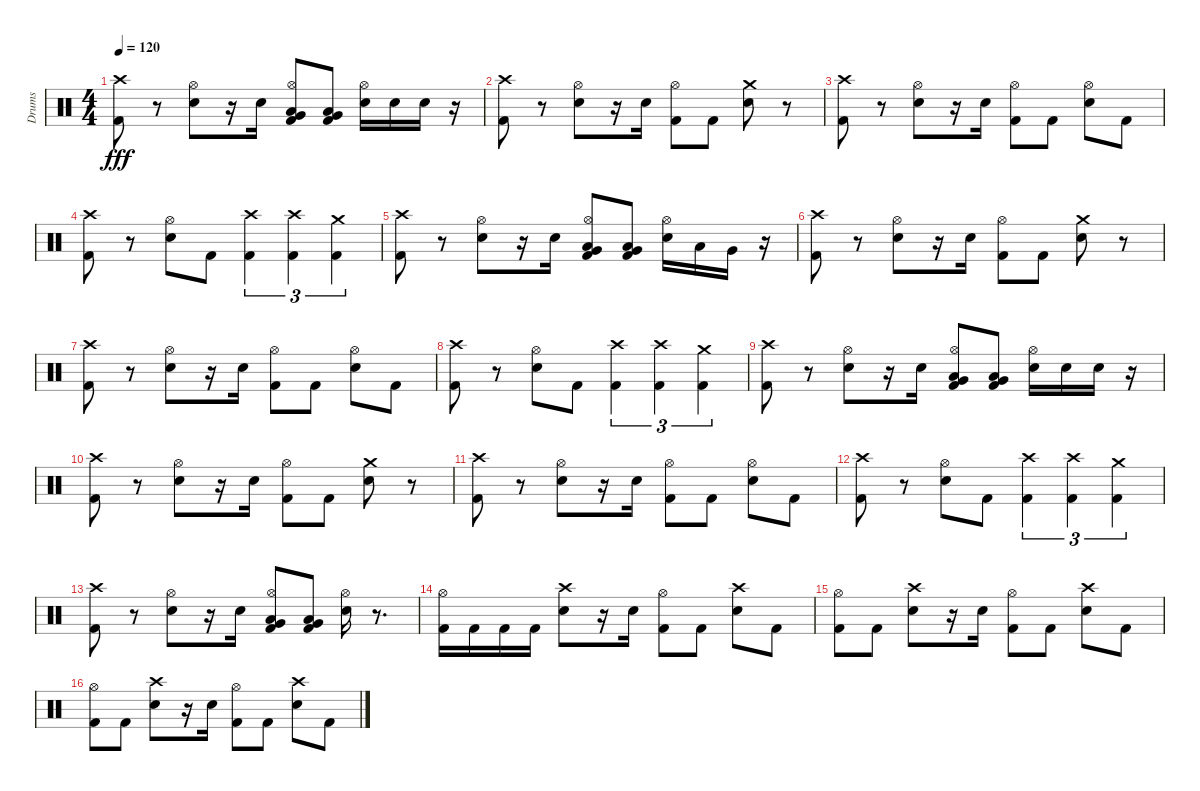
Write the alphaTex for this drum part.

\track ("Drums" "Drums") {instrument percussion}
\staff {score}
\articulation defaults
\ts (4 4)
\tempo 120
\clef neutral
\ks c
("Kick (hit) 2" "Crash high (hit)").8{dy fff} r.8 ("Electric Snare (hit)" "Hi-Hat (open)").8 r.16 "Electric Snare (hit)".16 ("Kick (hit) 2" "Very Low Tom (hit)" "Low Floor Tom (hit)" "Hi-Hat (open)").8 ("Kick (hit) 2" "Very Low Tom (hit)" "Low Floor Tom (hit)").8 ("Hi-Hat (open)" "Electric Snare (hit)").16 "Electric Snare (hit)".16 "Electric Snare (hit)".16 r.16 |
("Kick (hit) 2" "Crash high (hit)").8 r.8 ("Electric Snare (hit)" "Hi-Hat (open)").8 r.16 "Electric Snare (hit)".16 ("Kick (hit) 2" "Hi-Hat (open)").8 "Kick (hit) 2".8 ("Electric Snare (hit)" "Crash medium (hit)").8 r.8 |
("Kick (hit) 2" "Crash high (hit)").8 r.8 ("Electric Snare (hit)" "Hi-Hat (open)").8 r.16 "Electric Snare (hit)".16 ("Kick (hit) 2" "Hi-Hat (open)").8 "Kick (hit) 2".8 ("Electric Snare (hit)" "Hi-Hat (open)").8 "Kick (hit) 2".8 |
("Kick (hit) 2" "Crash high (hit)").8 r.8 ("Electric Snare (hit)" "Hi-Hat (open)").8 "Kick (hit) 2".8 ("Kick (hit) 2" "Crash high (hit)").4{tu (3 2)} ("Kick (hit) 2" "Crash high (hit)").4{tu (3 2)} ("Kick (hit) 2" "Crash medium (hit)").4{tu (3 2)} |
("Kick (hit) 2" "Crash high (hit)").8 r.8 ("Electric Snare (hit)" "Hi-Hat (open)").8 r.16 "Electric Snare (hit)".16 ("Kick (hit) 2" "Very Low Tom (hit)" "Low Floor Tom (hit)" "Hi-Hat (open)").8 ("Kick (hit) 2" "Very Low Tom (hit)" "Low Floor Tom (hit)").8 ("Electric Snare (hit)" "Hi-Hat (open)").16 "Low Tom (hit)".16 "Very Low Tom (hit)".16 r.16 |
("Kick (hit) 2" "Crash high (hit)").8 r.8 ("Electric Snare (hit)" "Hi-Hat (open)").8 r.16 "Electric Snare (hit)".16 ("Kick (hit) 2" "Hi-Hat (open)").8 "Kick (hit) 2".8 ("Electric Snare (hit)" "Crash medium (hit)").8 r.8 |
("Kick (hit) 2" "Crash high (hit)").8 r.8 ("Electric Snare (hit)" "Hi-Hat (open)").8 r.16 "Electric Snare (hit)".16 ("Kick (hit) 2" "Hi-Hat (open)").8 "Kick (hit) 2".8 ("Electric Snare (hit)" "Hi-Hat (open)").8 "Kick (hit) 2".8 |
("Kick (hit) 2" "Crash high (hit)").8 r.8 ("Electric Snare (hit)" "Hi-Hat (open)").8 "Kick (hit) 2".8 ("Kick (hit) 2" "Crash high (hit)").4{tu (3 2)} ("Kick (hit) 2" "Crash high (hit)").4{tu (3 2)} ("Kick (hit) 2" "Crash medium (hit)").4{tu (3 2)} |
("Kick (hit) 2" "Crash high (hit)").8 r.8 ("Electric Snare (hit)" "Hi-Hat (open)").8 r.16 "Electric Snare (hit)".16 ("Kick (hit) 2" "Very Low Tom (hit)" "Low Floor Tom (hit)" "Hi-Hat (open)").8 ("Kick (hit) 2" "Very Low Tom (hit)" "Low Floor Tom (hit)").8 ("Electric Snare (hit)" "Hi-Hat (open)").16 "Electric Snare (hit)".16 "Electric Snare (hit)".16 r.16 |
("Kick (hit) 2" "Crash high (hit)").8 r.8 ("Electric Snare (hit)" "Hi-Hat (open)").8 r.16 "Electric Snare (hit)".16 ("Kick (hit) 2" "Hi-Hat (open)").8 "Kick (hit) 2".8 ("Electric Snare (hit)" "Crash medium (hit)").8 r.8 |
("Kick (hit) 2" "Crash high (hit)").8 r.8 ("Electric Snare (hit)" "Hi-Hat (open)").8 r.16 "Electric Snare (hit)".16 ("Kick (hit) 2" "Hi-Hat (open)").8 "Kick (hit) 2".8 ("Electric Snare (hit)" "Hi-Hat (open)").8 "Kick (hit) 2".8 |
("Kick (hit) 2" "Crash high (hit)").8 r.8 ("Electric Snare (hit)" "Hi-Hat (open)").8 "Kick (hit) 2".8 ("Kick (hit) 2" "Crash high (hit)").4{tu (3 2)} ("Kick (hit) 2" "Crash high (hit)").4{tu (3 2)} ("Kick (hit) 2" "Crash medium (hit)").4{tu (3 2)} |
("Kick (hit) 2" "Crash high (hit)").8 r.8 ("Electric Snare (hit)" "Hi-Hat (open)").8 r.16 "Electric Snare (hit)".16 ("Kick (hit) 2" "Very Low Tom (hit)" "Low Floor Tom (hit)" "Hi-Hat (open)").8 ("Kick (hit) 2" "Very Low Tom (hit)" "Low Floor Tom (hit)").8 ("Electric Snare (hit)" "Hi-Hat (open)").16 r.8{d} |
("Kick (hit) 2" "Hi-Hat (open)").16 "Kick (hit) 2".16 "Kick (hit) 2".16 "Kick (hit) 2".16 ("Crash high (hit)" "Electric Snare (hit)").8 r.16 "Electric Snare (hit)".16 ("Kick (hit) 2" "Hi-Hat (open)").8 "Kick (hit) 2".8 ("Electric Snare (hit)" "Crash high (hit)").8 "Kick (hit) 2".8 |
("Kick (hit) 2" "Hi-Hat (open)").8 "Kick (hit) 2".8 ("Electric Snare (hit)" "Crash high (hit)").8 r.16 "Electric Snare (hit)".16 ("Kick (hit) 2" "Hi-Hat (open)").8 "Kick (hit) 2".8 ("Electric Snare (hit)" "Crash high (hit)").8 "Kick (hit) 2".8 |
("Kick (hit) 2" "Hi-Hat (open)").8 "Kick (hit) 2".8 ("Electric Snare (hit)" "Crash high (hit)").8 r.16 "Electric Snare (hit)".16 ("Kick (hit) 2" "Hi-Hat (open)").8 "Kick (hit) 2".8 ("Electric Snare (hit)" "Crash high (hit)").8 "Kick (hit) 2".8
